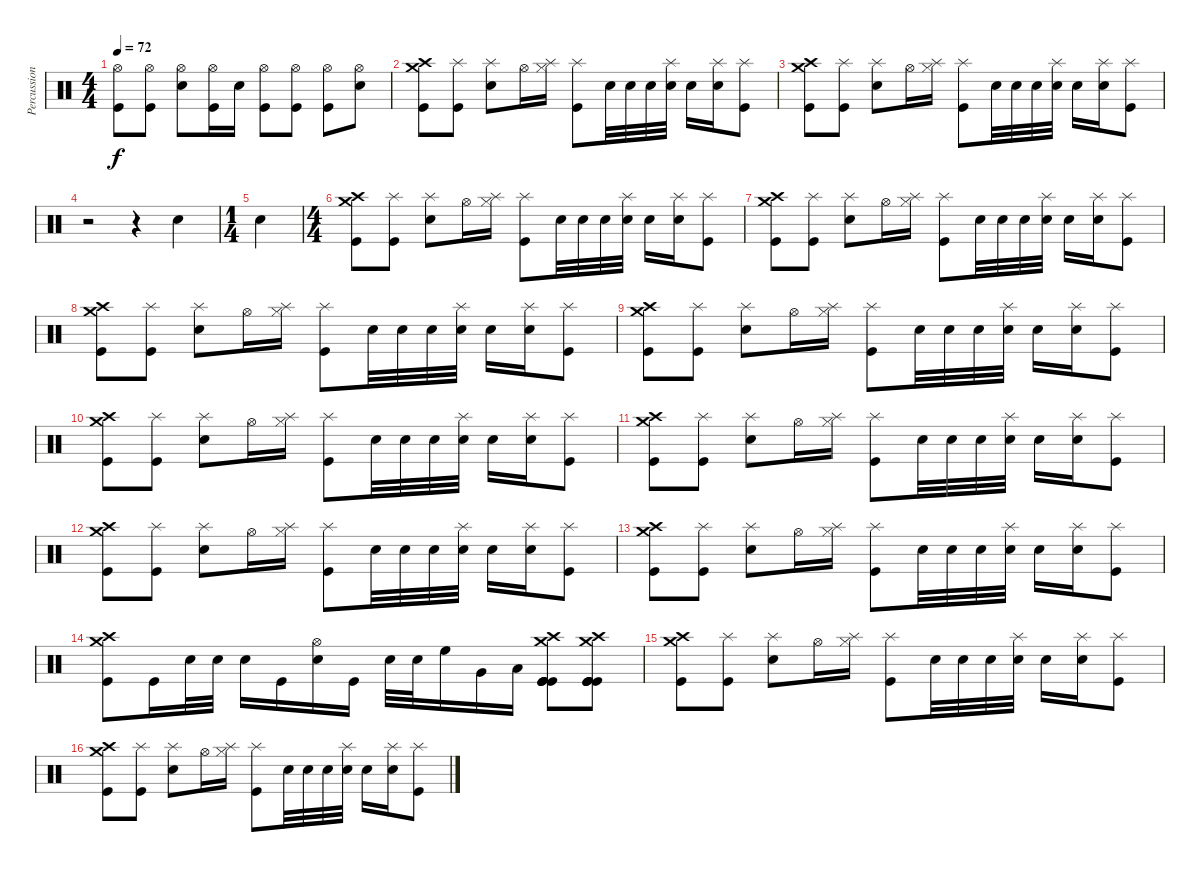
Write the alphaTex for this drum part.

\track ("Percussions" "Percussion") {instrument percussion}
\staff {score}
\articulation defaults
\ts (4 4)
\tempo 72
\clef neutral
\ks c
("Hi-Hat (open)" "Kick (hit)").8{dy f} ("Hi-Hat (open)" "Kick (hit)").8 ("Hi-Hat (open)" "Electric Snare (hit)").8 ("Hi-Hat (open)" "Kick (hit)").16 "Electric Snare (hit)".16 ("Hi-Hat (open)" "Kick (hit)").8 ("Hi-Hat (open)" "Kick (hit)").8 ("Hi-Hat (open)" "Kick (hit)").8 ("Hi-Hat (open)" "Electric Snare (hit)").8 |
("Crash medium (hit)" "Crash high (hit)" "Kick (hit)").8 ("Splash (hit)" "Kick (hit)").8 ("Splash (hit)" "Electric Snare (hit)").8 "Hi-Hat (open)".16 ("Hi-Hat (closed)" "Splash (hit)").16 ("Splash (hit)" "Kick (hit)").8 "Electric Snare (hit)".32 "Electric Snare (hit)".32 "Electric Snare (hit)".32 ("Splash (hit)" "Electric Snare (hit)").32 "Electric Snare (hit)".16 ("Splash (hit)" "Electric Snare (hit)").16 ("Splash (hit)" "Kick (hit)").8 |
("Crash medium (hit)" "Crash high (hit)" "Kick (hit)").8 ("Splash (hit)" "Kick (hit)").8 ("Splash (hit)" "Electric Snare (hit)").8 "Hi-Hat (open)".16 ("Hi-Hat (closed)" "Splash (hit)").16 ("Splash (hit)" "Kick (hit)").8 "Electric Snare (hit)".32 "Electric Snare (hit)".32 "Electric Snare (hit)".32 ("Splash (hit)" "Electric Snare (hit)").32 "Electric Snare (hit)".16 ("Splash (hit)" "Electric Snare (hit)").16 ("Splash (hit)" "Kick (hit)").8 |
r.2 r.4 "Hand Clap (hit)".4{balance 0} |
\ts (1 4)
"Hand Clap (hit)".4{balance 16} |
\ts (4 4)
("Crash medium (hit)" "Crash high (hit)" "Kick (hit)").8 ("Splash (hit)" "Kick (hit)").8 ("Splash (hit)" "Electric Snare (hit)").8 "Hi-Hat (open)".16 ("Hi-Hat (closed)" "Splash (hit)").16 ("Splash (hit)" "Kick (hit)").8 "Electric Snare (hit)".32 "Electric Snare (hit)".32 "Electric Snare (hit)".32 ("Splash (hit)" "Electric Snare (hit)").32 "Electric Snare (hit)".16 ("Splash (hit)" "Electric Snare (hit)").16 ("Splash (hit)" "Kick (hit)").8 |
("Crash medium (hit)" "Crash high (hit)" "Kick (hit)").8 ("Splash (hit)" "Kick (hit)").8 ("Splash (hit)" "Electric Snare (hit)").8 "Hi-Hat (open)".16 ("Hi-Hat (closed)" "Splash (hit)").16 ("Splash (hit)" "Kick (hit)").8 "Electric Snare (hit)".32 "Electric Snare (hit)".32 "Electric Snare (hit)".32 ("Splash (hit)" "Electric Snare (hit)").32 "Electric Snare (hit)".16 ("Splash (hit)" "Electric Snare (hit)").16 ("Splash (hit)" "Kick (hit)").8 |
("Crash medium (hit)" "Crash high (hit)" "Kick (hit)").8 ("Splash (hit)" "Kick (hit)").8 ("Splash (hit)" "Electric Snare (hit)").8 "Hi-Hat (open)".16 ("Hi-Hat (closed)" "Splash (hit)").16 ("Splash (hit)" "Kick (hit)").8 "Electric Snare (hit)".32 "Electric Snare (hit)".32 "Electric Snare (hit)".32 ("Splash (hit)" "Electric Snare (hit)").32 "Electric Snare (hit)".16 ("Splash (hit)" "Electric Snare (hit)").16 ("Splash (hit)" "Kick (hit)").8 |
("Crash medium (hit)" "Crash high (hit)" "Kick (hit)").8 ("Splash (hit)" "Kick (hit)").8 ("Splash (hit)" "Electric Snare (hit)").8 "Hi-Hat (open)".16 ("Hi-Hat (closed)" "Splash (hit)").16 ("Splash (hit)" "Kick (hit)").8 "Electric Snare (hit)".32 "Electric Snare (hit)".32 "Electric Snare (hit)".32 ("Splash (hit)" "Electric Snare (hit)").32 "Electric Snare (hit)".16 ("Splash (hit)" "Electric Snare (hit)").16 ("Splash (hit)" "Kick (hit)").8 |
("Crash medium (hit)" "Crash high (hit)" "Kick (hit)").8 ("Splash (hit)" "Kick (hit)").8 ("Splash (hit)" "Electric Snare (hit)").8 "Hi-Hat (open)".16 ("Hi-Hat (closed)" "Splash (hit)").16 ("Splash (hit)" "Kick (hit)").8 "Electric Snare (hit)".32 "Electric Snare (hit)".32 "Electric Snare (hit)".32 ("Splash (hit)" "Electric Snare (hit)").32 "Electric Snare (hit)".16 ("Splash (hit)" "Electric Snare (hit)").16 ("Splash (hit)" "Kick (hit)").8 |
("Crash medium (hit)" "Crash high (hit)" "Kick (hit)").8 ("Splash (hit)" "Kick (hit)").8 ("Splash (hit)" "Electric Snare (hit)").8 "Hi-Hat (open)".16 ("Hi-Hat (closed)" "Splash (hit)").16 ("Splash (hit)" "Kick (hit)").8 "Electric Snare (hit)".32 "Electric Snare (hit)".32 "Electric Snare (hit)".32 ("Splash (hit)" "Electric Snare (hit)").32 "Electric Snare (hit)".16 ("Splash (hit)" "Electric Snare (hit)").16 ("Splash (hit)" "Kick (hit)").8 |
("Crash medium (hit)" "Crash high (hit)" "Kick (hit)").8 ("Splash (hit)" "Kick (hit)").8 ("Splash (hit)" "Electric Snare (hit)").8 "Hi-Hat (open)".16 ("Hi-Hat (closed)" "Splash (hit)").16 ("Splash (hit)" "Kick (hit)").8 "Electric Snare (hit)".32 "Electric Snare (hit)".32 "Electric Snare (hit)".32 ("Splash (hit)" "Electric Snare (hit)").32 "Electric Snare (hit)".16 ("Splash (hit)" "Electric Snare (hit)").16 ("Splash (hit)" "Kick (hit)").8 |
("Crash medium (hit)" "Crash high (hit)" "Kick (hit)").8 ("Splash (hit)" "Kick (hit)").8 ("Splash (hit)" "Electric Snare (hit)").8 "Hi-Hat (open)".16 ("Hi-Hat (closed)" "Splash (hit)").16 ("Splash (hit)" "Kick (hit)").8 "Electric Snare (hit)".32 "Electric Snare (hit)".32 "Electric Snare (hit)".32 ("Splash (hit)" "Electric Snare (hit)").32 "Electric Snare (hit)".16 ("Splash (hit)" "Electric Snare (hit)").16 ("Splash (hit)" "Kick (hit)").8 |
("Crash medium (hit)" "Crash high (hit)" "Kick (hit)").8 "Kick (hit)".16 "Electric Snare (hit)".32 "Snare (hit) 2".32 "Electric Snare (hit)".16 "Kick (hit)".16 ("Hi-Hat (open)" "Electric Snare (hit)").16 "Kick (hit)".16 "Electric Snare (hit)".32 "Snare (hit) 2".32 "High Floor Tom (hit)".16 "Very Low Tom (hit)".16 "Low Floor Tom (hit)".16 ("Crash medium (hit)" "Crash high (hit)" "Kick (hit)" "Kick (hit)" "Kick (hit)" "Kick (hit)").8 ("Crash medium (hit)" "Crash high (hit)" "Kick (hit)" "Kick (hit)" "Kick (hit)" "Kick (hit)").8 |
("Crash medium (hit)" "Crash high (hit)" "Kick (hit)").8 ("Splash (hit)" "Kick (hit)").8 ("Splash (hit)" "Electric Snare (hit)").8 "Hi-Hat (open)".16 ("Hi-Hat (closed)" "Splash (hit)").16 ("Splash (hit)" "Kick (hit)").8 "Electric Snare (hit)".32 "Electric Snare (hit)".32 "Electric Snare (hit)".32 ("Splash (hit)" "Electric Snare (hit)").32 "Electric Snare (hit)".16 ("Splash (hit)" "Electric Snare (hit)").16 ("Splash (hit)" "Kick (hit)").8 |
("Crash medium (hit)" "Crash high (hit)" "Kick (hit)").8 ("Splash (hit)" "Kick (hit)").8 ("Splash (hit)" "Electric Snare (hit)").8 "Hi-Hat (open)".16 ("Hi-Hat (closed)" "Splash (hit)").16 ("Splash (hit)" "Kick (hit)").8 "Electric Snare (hit)".32 "Electric Snare (hit)".32 "Electric Snare (hit)".32 ("Splash (hit)" "Electric Snare (hit)").32 "Electric Snare (hit)".16 ("Splash (hit)" "Electric Snare (hit)").16 ("Splash (hit)" "Kick (hit)").8
